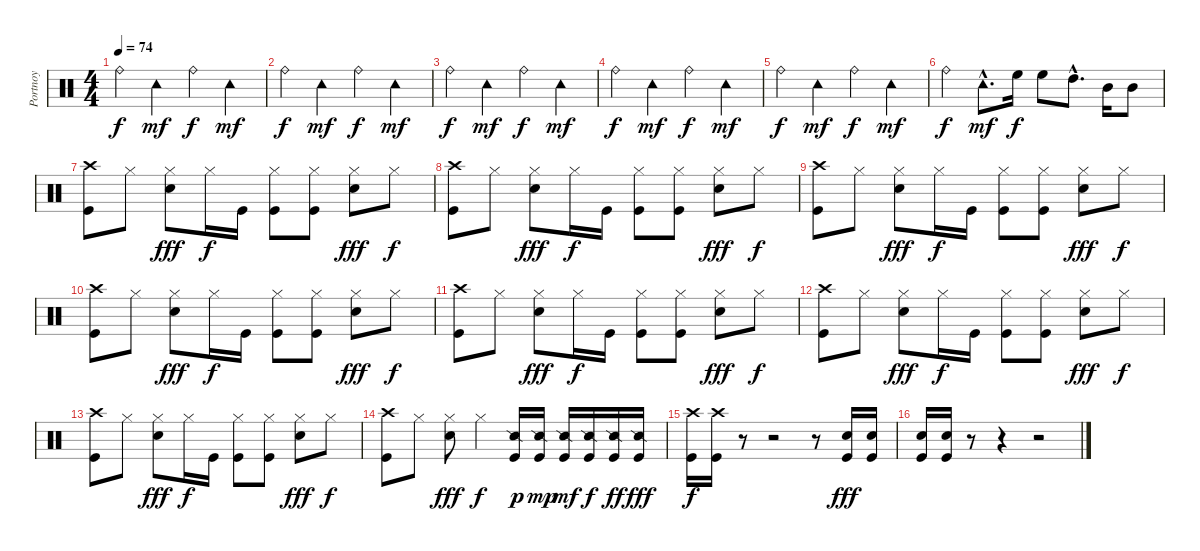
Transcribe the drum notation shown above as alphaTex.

\track ("Portnoy" "Portnoy") {instrument percussion}
\staff {score}
\articulation defaults
\ts (4 4)
\tempo 74
\clef neutral
\ks c "Ride (bell)".4{dy f} "Tambourine (hit)".4{dy mf} "Ride (bell)".4{dy f} "Tambourine (hit)".4{dy mf}
|
"Ride (bell)".4{dy f} "Tambourine (hit)".4{dy mf} "Ride (bell)".4{dy f} "Tambourine (hit)".4{dy mf} |
"Ride (bell)".4{dy f} "Tambourine (hit)".4{dy mf} "Ride (bell)".4{dy f} "Tambourine (hit)".4{dy mf} |
"Ride (bell)".4{dy f} "Tambourine (hit)".4{dy mf} "Ride (bell)".4{dy f} "Tambourine (hit)".4{dy mf} |
"Ride (bell)".4{dy f} "Tambourine (hit)".4{dy mf} "Ride (bell)".4{dy f} "Tambourine (hit)".4{dy mf} |
"Ride (bell)".4{dy f} "Tambourine (hit)"{hac}.8{d dy mf} "High Floor Tom (hit)".16{dy f} "High Floor Tom (hit)".8 "High Tom (hit)"{hac}.8{d} "Mid Tom (hit)".16 "Mid Tom (hit)".8 |
("Crash high (hit)" "Kick (hit)").8 "Hi-Hat (closed)".8 ("Hi-Hat (closed)" "Electric Snare (hit)").8{dy fff} "Hi-Hat (closed)".16{dy f} "Kick (hit)".16 ("Hi-Hat (closed)" "Kick (hit)").8 ("Hi-Hat (closed)" "Kick (hit)").8 ("Hi-Hat (closed)" "Electric Snare (hit)").8{dy fff} "Hi-Hat (closed)".8{dy f} |
("Crash high (hit)" "Kick (hit)").8 "Hi-Hat (closed)".8 ("Hi-Hat (closed)" "Electric Snare (hit)").8{dy fff} "Hi-Hat (closed)".16{dy f} "Kick (hit)".16 ("Hi-Hat (closed)" "Kick (hit)").8 ("Hi-Hat (closed)" "Kick (hit)").8 ("Hi-Hat (closed)" "Electric Snare (hit)").8{dy fff} "Hi-Hat (closed)".8{dy f} |
("Crash high (hit)" "Kick (hit)").8 "Hi-Hat (closed)".8 ("Hi-Hat (closed)" "Electric Snare (hit)").8{dy fff} "Hi-Hat (closed)".16{dy f} "Kick (hit)".16 ("Hi-Hat (closed)" "Kick (hit)").8 ("Hi-Hat (closed)" "Kick (hit)").8 ("Hi-Hat (closed)" "Electric Snare (hit)").8{dy fff} "Hi-Hat (closed)".8{dy f} |
("Crash high (hit)" "Kick (hit)").8 "Hi-Hat (closed)".8 ("Hi-Hat (closed)" "Electric Snare (hit)").8{dy fff} "Hi-Hat (closed)".16{dy f} "Kick (hit)".16 ("Hi-Hat (closed)" "Kick (hit)").8 ("Hi-Hat (closed)" "Kick (hit)").8 ("Hi-Hat (closed)" "Electric Snare (hit)").8{dy fff} "Hi-Hat (closed)".8{dy f} |
("Crash high (hit)" "Kick (hit)").8 "Hi-Hat (closed)".8 ("Hi-Hat (closed)" "Electric Snare (hit)").8{dy fff} "Hi-Hat (closed)".16{dy f} "Kick (hit)".16 ("Hi-Hat (closed)" "Kick (hit)").8 ("Hi-Hat (closed)" "Kick (hit)").8 ("Hi-Hat (closed)" "Electric Snare (hit)").8{dy fff} "Hi-Hat (closed)".8{dy f} |
("Crash high (hit)" "Kick (hit)").8 "Hi-Hat (closed)".8 ("Hi-Hat (closed)" "Electric Snare (hit)").8{dy fff} "Hi-Hat (closed)".16{dy f} "Kick (hit)".16 ("Hi-Hat (closed)" "Kick (hit)").8 ("Hi-Hat (closed)" "Kick (hit)").8 ("Hi-Hat (closed)" "Electric Snare (hit)").8{dy fff} "Hi-Hat (closed)".8{dy f} |
("Crash high (hit)" "Kick (hit)").8 "Hi-Hat (closed)".8 ("Hi-Hat (closed)" "Electric Snare (hit)").8{dy fff} "Hi-Hat (closed)".16{dy f} "Kick (hit)".16 ("Hi-Hat (closed)" "Kick (hit)").8 ("Hi-Hat (closed)" "Kick (hit)").8 ("Hi-Hat (closed)" "Electric Snare (hit)").8{dy fff} "Hi-Hat (closed)".8{dy f} |
("Crash high (hit)" "Kick (hit)").8 "Hi-Hat (closed)".8 ("Hi-Hat (closed)" "Electric Snare (hit)").8{dy fff} "Hi-Hat (closed)".4{dy f} ("Snare (side stick) 2" "Kick (hit)").16{dy p} ("Snare (side stick) 2" "Kick (hit)").16{dy mp} ("Snare (side stick) 2" "Kick (hit)").16{dy mf} ("Snare (side stick) 2" "Kick (hit)").16{dy f} ("Snare (side stick) 2" "Kick (hit)").16{dy ff} ("Snare (side stick) 2" "Kick (hit)").16{dy fff} |
("Crash high (hit)" "Kick (hit)").16{dy f} ("Crash high (hit)" "Kick (hit)").16 r.8 r.2 r.8 ("Electric Snare (hit)" "Kick (hit)").16{dy fff} ("Electric Snare (hit)" "Kick (hit)").16 |
("Electric Snare (hit)" "Kick (hit)").16 ("Electric Snare (hit)" "Kick (hit)").16 r.8 r.4 r.2
